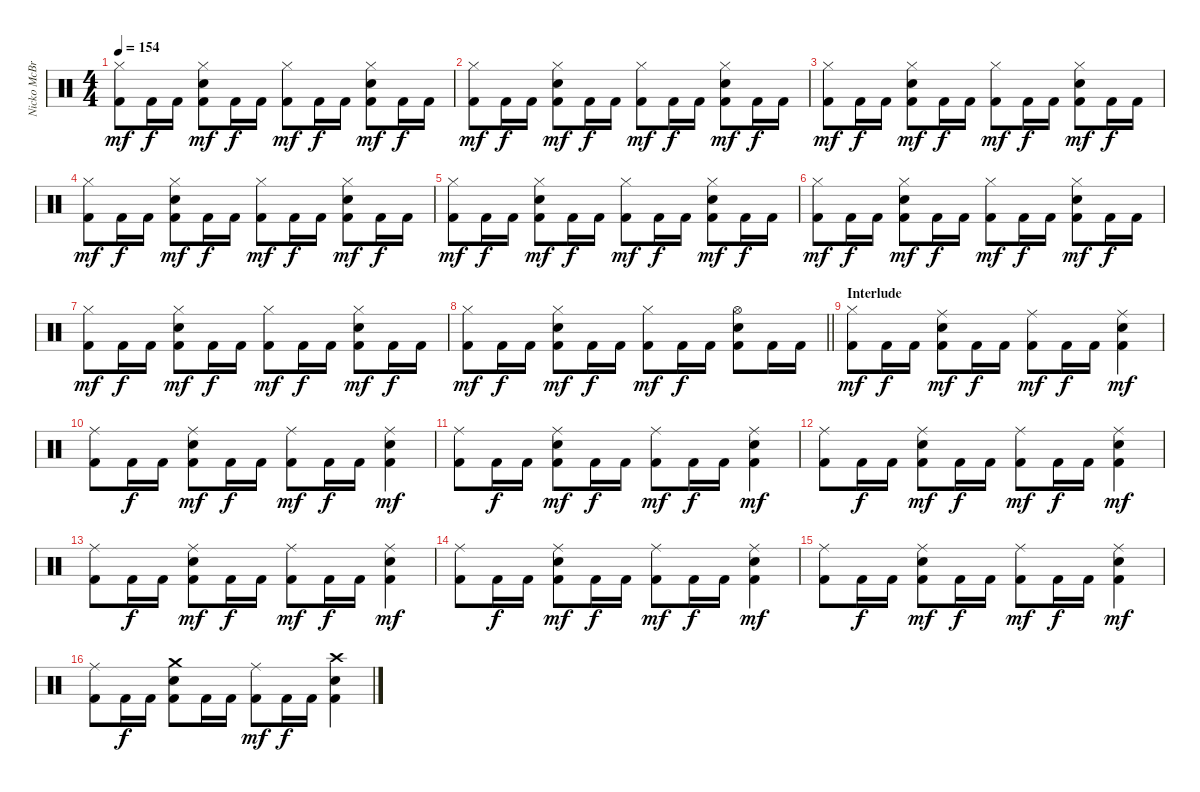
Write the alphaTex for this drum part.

\track ("Nicko McBrain" "Nicko McBr") {instrument percussion}
\staff {score}
\articulation defaults
\ts (4 4)
\tempo 154
\clef neutral
\ks c
("Hi-Hat (closed)" "Kick (hit) 2").8{dy mf} "Kick (hit) 2".16{dy f} "Kick (hit) 2".16 ("Hi-Hat (closed)" "Kick (hit) 2" "Electric Snare (hit)").8{dy mf} "Kick (hit) 2".16{dy f} "Kick (hit) 2".16 ("Hi-Hat (closed)" "Kick (hit) 2").8{dy mf} "Kick (hit) 2".16{dy f} "Kick (hit) 2".16 ("Hi-Hat (closed)" "Kick (hit) 2" "Electric Snare (hit)").8{dy mf} "Kick (hit) 2".16{dy f} "Kick (hit) 2".16 |
("Hi-Hat (closed)" "Kick (hit) 2").8{dy mf} "Kick (hit) 2".16{dy f} "Kick (hit) 2".16 ("Hi-Hat (closed)" "Kick (hit) 2" "Electric Snare (hit)").8{dy mf} "Kick (hit) 2".16{dy f} "Kick (hit) 2".16 ("Hi-Hat (closed)" "Kick (hit) 2").8{dy mf} "Kick (hit) 2".16{dy f} "Kick (hit) 2".16 ("Hi-Hat (closed)" "Kick (hit) 2" "Electric Snare (hit)").8{dy mf} "Kick (hit) 2".16{dy f} "Kick (hit) 2".16 |
("Hi-Hat (closed)" "Kick (hit) 2").8{dy mf} "Kick (hit) 2".16{dy f} "Kick (hit) 2".16 ("Hi-Hat (closed)" "Kick (hit) 2" "Electric Snare (hit)").8{dy mf} "Kick (hit) 2".16{dy f} "Kick (hit) 2".16 ("Hi-Hat (closed)" "Kick (hit) 2").8{dy mf} "Kick (hit) 2".16{dy f} "Kick (hit) 2".16 ("Hi-Hat (closed)" "Kick (hit) 2" "Electric Snare (hit)").8{dy mf} "Kick (hit) 2".16{dy f} "Kick (hit) 2".16 |
("Hi-Hat (closed)" "Kick (hit) 2").8{dy mf} "Kick (hit) 2".16{dy f} "Kick (hit) 2".16 ("Hi-Hat (closed)" "Kick (hit) 2" "Electric Snare (hit)").8{dy mf} "Kick (hit) 2".16{dy f} "Kick (hit) 2".16 ("Hi-Hat (closed)" "Kick (hit) 2").8{dy mf} "Kick (hit) 2".16{dy f} "Kick (hit) 2".16 ("Hi-Hat (closed)" "Kick (hit) 2" "Electric Snare (hit)").8{dy mf} "Kick (hit) 2".16{dy f} "Kick (hit) 2".16 |
("Hi-Hat (closed)" "Kick (hit) 2").8{dy mf} "Kick (hit) 2".16{dy f} "Kick (hit) 2".16 ("Hi-Hat (closed)" "Kick (hit) 2" "Electric Snare (hit)").8{dy mf} "Kick (hit) 2".16{dy f} "Kick (hit) 2".16 ("Hi-Hat (closed)" "Kick (hit) 2").8{dy mf} "Kick (hit) 2".16{dy f} "Kick (hit) 2".16 ("Hi-Hat (closed)" "Kick (hit) 2" "Electric Snare (hit)").8{dy mf} "Kick (hit) 2".16{dy f} "Kick (hit) 2".16 |
("Hi-Hat (closed)" "Kick (hit) 2").8{dy mf} "Kick (hit) 2".16{dy f} "Kick (hit) 2".16 ("Hi-Hat (closed)" "Kick (hit) 2" "Electric Snare (hit)").8{dy mf} "Kick (hit) 2".16{dy f} "Kick (hit) 2".16 ("Hi-Hat (closed)" "Kick (hit) 2").8{dy mf} "Kick (hit) 2".16{dy f} "Kick (hit) 2".16 ("Hi-Hat (closed)" "Kick (hit) 2" "Electric Snare (hit)").8{dy mf} "Kick (hit) 2".16{dy f} "Kick (hit) 2".16 |
("Hi-Hat (closed)" "Kick (hit) 2").8{dy mf} "Kick (hit) 2".16{dy f} "Kick (hit) 2".16 ("Hi-Hat (closed)" "Kick (hit) 2" "Electric Snare (hit)").8{dy mf} "Kick (hit) 2".16{dy f} "Kick (hit) 2".16 ("Hi-Hat (closed)" "Kick (hit) 2").8{dy mf} "Kick (hit) 2".16{dy f} "Kick (hit) 2".16 ("Hi-Hat (closed)" "Kick (hit) 2" "Electric Snare (hit)").8{dy mf} "Kick (hit) 2".16{dy f} "Kick (hit) 2".16 |
\barLineRight lightlight
("Hi-Hat (closed)" "Kick (hit) 2").8{dy mf} "Kick (hit) 2".16{dy f} "Kick (hit) 2".16 ("Hi-Hat (closed)" "Kick (hit) 2" "Electric Snare (hit)").8{dy mf} "Kick (hit) 2".16{dy f} "Kick (hit) 2".16 ("Hi-Hat (closed)" "Kick (hit) 2").8{dy mf} "Kick (hit) 2".16{dy f} "Kick (hit) 2".16 ("Hi-Hat (open)" "Kick (hit) 2" "Electric Snare (hit)").8 "Kick (hit) 2".16 "Kick (hit) 2".16 |
\section ("" "Interlude")
("Hi-Hat (closed)" "Kick (hit) 2").8{dy mf} "Kick (hit) 2".16{dy f} "Kick (hit) 2".16 ("Ride (middle)" "Kick (hit) 2" "Electric Snare (hit)").8{dy mf} "Kick (hit) 2".16{dy f} "Kick (hit) 2".16 ("Ride (middle)" "Kick (hit) 2").8{dy mf} "Kick (hit) 2".16{dy f} "Kick (hit) 2".16 ("Ride (middle)" "Kick (hit) 2" "Electric Snare (hit)").4{dy mf} |
("Ride (middle)" "Kick (hit) 2").8 "Kick (hit) 2".16{dy f} "Kick (hit) 2".16 ("Ride (middle)" "Kick (hit) 2" "Electric Snare (hit)").8{dy mf} "Kick (hit) 2".16{dy f} "Kick (hit) 2".16 ("Ride (middle)" "Kick (hit) 2").8{dy mf} "Kick (hit) 2".16{dy f} "Kick (hit) 2".16 ("Ride (middle)" "Kick (hit) 2" "Electric Snare (hit)").4{dy mf} |
("Ride (middle)" "Kick (hit) 2").8 "Kick (hit) 2".16{dy f} "Kick (hit) 2".16 ("Ride (middle)" "Kick (hit) 2" "Electric Snare (hit)").8{dy mf} "Kick (hit) 2".16{dy f} "Kick (hit) 2".16 ("Ride (middle)" "Kick (hit) 2").8{dy mf} "Kick (hit) 2".16{dy f} "Kick (hit) 2".16 ("Ride (middle)" "Kick (hit) 2" "Electric Snare (hit)").4{dy mf} |
("Ride (middle)" "Kick (hit) 2").8 "Kick (hit) 2".16{dy f} "Kick (hit) 2".16 ("Ride (middle)" "Kick (hit) 2" "Electric Snare (hit)").8{dy mf} "Kick (hit) 2".16{dy f} "Kick (hit) 2".16 ("Ride (middle)" "Kick (hit) 2").8{dy mf} "Kick (hit) 2".16{dy f} "Kick (hit) 2".16 ("Ride (middle)" "Kick (hit) 2" "Electric Snare (hit)").4{dy mf} |
("Ride (middle)" "Kick (hit) 2").8 "Kick (hit) 2".16{dy f} "Kick (hit) 2".16 ("Ride (middle)" "Kick (hit) 2" "Electric Snare (hit)").8{dy mf} "Kick (hit) 2".16{dy f} "Kick (hit) 2".16 ("Ride (middle)" "Kick (hit) 2").8{dy mf} "Kick (hit) 2".16{dy f} "Kick (hit) 2".16 ("Ride (middle)" "Kick (hit) 2" "Electric Snare (hit)").4{dy mf} |
("Ride (middle)" "Kick (hit) 2").8 "Kick (hit) 2".16{dy f} "Kick (hit) 2".16 ("Ride (middle)" "Kick (hit) 2" "Electric Snare (hit)").8{dy mf} "Kick (hit) 2".16{dy f} "Kick (hit) 2".16 ("Ride (middle)" "Kick (hit) 2").8{dy mf} "Kick (hit) 2".16{dy f} "Kick (hit) 2".16 ("Ride (middle)" "Kick (hit) 2" "Electric Snare (hit)").4{dy mf} |
("Ride (middle)" "Kick (hit) 2").8 "Kick (hit) 2".16{dy f} "Kick (hit) 2".16 ("Ride (middle)" "Kick (hit) 2" "Electric Snare (hit)").8{dy mf} "Kick (hit) 2".16{dy f} "Kick (hit) 2".16 ("Ride (middle)" "Kick (hit) 2").8{dy mf} "Kick (hit) 2".16{dy f} "Kick (hit) 2".16 ("Ride (middle)" "Kick (hit) 2" "Electric Snare (hit)").4{dy mf} |
("Ride (middle)" "Kick (hit) 2").8 "Kick (hit) 2".16{dy f} "Kick (hit) 2".16 ("Crash medium (hit)" "Kick (hit) 2" "Electric Snare (hit)").8 "Kick (hit) 2".16 "Kick (hit) 2".16 ("Ride (middle)" "Kick (hit) 2").8{dy mf} "Kick (hit) 2".16{dy f} "Kick (hit) 2".16 ("Crash high (hit)" "Kick (hit) 2" "Electric Snare (hit)").4
